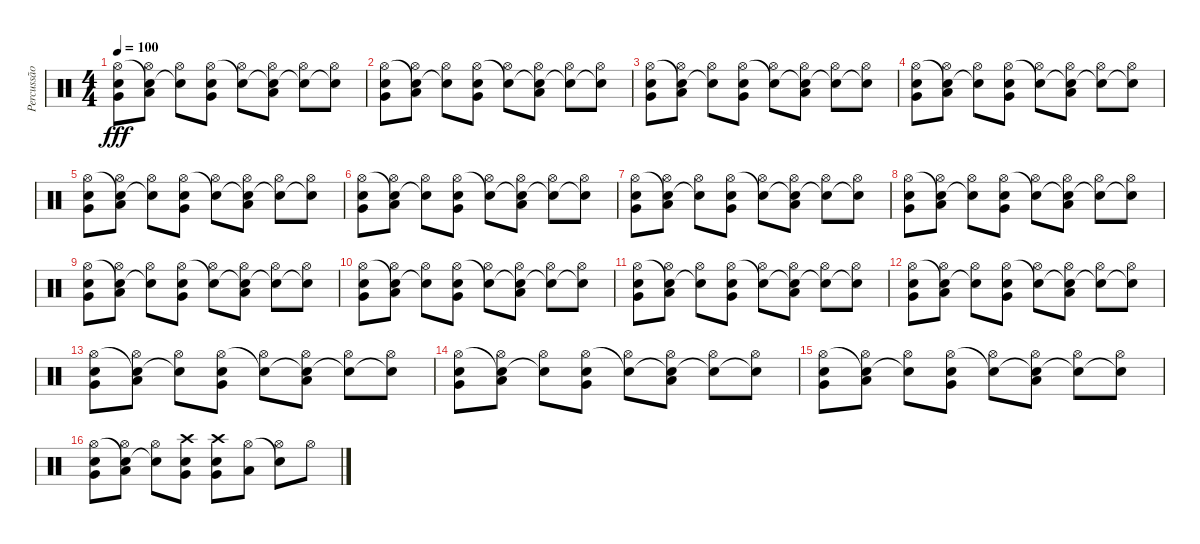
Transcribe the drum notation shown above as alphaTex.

\track ("Percussão" "Percussão") {instrument percussion}
\staff {score}
\articulation defaults
\ts (4 4)
\tempo 100
\clef neutral
\ks c
("Hi-Hat (open)" "Very Low Tom (hit)" "Snare (hit) 2").8{dy fff} ("Snare (hit)"{t} "Hi-Hat (open)" "Low Tom (hit)").8 ("Snare (hit)"{t} "Hi-Hat (open)").8 ("Hi-Hat (open)" "Very Low Tom (hit)" "Snare (hit) 2").8 ("Snare (hit)"{t} "Hi-Hat (open)").8 ("Snare (hit)"{t} "Hi-Hat (open)" "Low Tom (hit)").8 ("Snare (hit)"{t} "Hi-Hat (open)").8 ("Snare (hit)"{t} "Hi-Hat (open)").8 |
("Hi-Hat (open)" "Very Low Tom (hit)" "Snare (hit) 2").8 ("Snare (hit)"{t} "Hi-Hat (open)" "Low Tom (hit)").8 ("Snare (hit)"{t} "Hi-Hat (open)").8 ("Hi-Hat (open)" "Very Low Tom (hit)" "Snare (hit) 2").8 ("Snare (hit)"{t} "Hi-Hat (open)").8 ("Snare (hit)"{t} "Hi-Hat (open)" "Low Tom (hit)").8 ("Snare (hit)"{t} "Hi-Hat (open)").8 ("Snare (hit)"{t} "Hi-Hat (open)").8 |
("Hi-Hat (open)" "Very Low Tom (hit)" "Snare (hit) 2").8 ("Snare (hit)"{t} "Hi-Hat (open)" "Low Tom (hit)").8 ("Snare (hit)"{t} "Hi-Hat (open)").8 ("Hi-Hat (open)" "Very Low Tom (hit)" "Snare (hit) 2").8 ("Snare (hit)"{t} "Hi-Hat (open)").8 ("Snare (hit)"{t} "Hi-Hat (open)" "Low Tom (hit)").8 ("Snare (hit)"{t} "Hi-Hat (open)").8 ("Snare (hit)"{t} "Hi-Hat (open)").8 |
("Hi-Hat (open)" "Very Low Tom (hit)" "Snare (hit) 2").8 ("Snare (hit)"{t} "Hi-Hat (open)" "Low Tom (hit)").8 ("Snare (hit)"{t} "Hi-Hat (open)").8 ("Hi-Hat (open)" "Very Low Tom (hit)" "Snare (hit) 2").8 ("Snare (hit)"{t} "Hi-Hat (open)").8 ("Snare (hit)"{t} "Hi-Hat (open)" "Low Tom (hit)").8 ("Snare (hit)"{t} "Hi-Hat (open)").8 ("Snare (hit)"{t} "Hi-Hat (open)").8 |
("Hi-Hat (open)" "Very Low Tom (hit)" "Snare (hit) 2").8 ("Snare (hit)"{t} "Hi-Hat (open)" "Low Tom (hit)").8 ("Snare (hit)"{t} "Hi-Hat (open)").8 ("Hi-Hat (open)" "Very Low Tom (hit)" "Snare (hit) 2").8 ("Snare (hit)"{t} "Hi-Hat (open)").8 ("Snare (hit)"{t} "Hi-Hat (open)" "Low Tom (hit)").8 ("Snare (hit)"{t} "Hi-Hat (open)").8 ("Snare (hit)"{t} "Hi-Hat (open)").8 |
("Hi-Hat (open)" "Very Low Tom (hit)" "Snare (hit) 2").8 ("Snare (hit)"{t} "Hi-Hat (open)" "Low Tom (hit)").8 ("Snare (hit)"{t} "Hi-Hat (open)").8 ("Hi-Hat (open)" "Very Low Tom (hit)" "Snare (hit) 2").8 ("Snare (hit)"{t} "Hi-Hat (open)").8 ("Snare (hit)"{t} "Hi-Hat (open)" "Low Tom (hit)").8 ("Snare (hit)"{t} "Hi-Hat (open)").8 ("Snare (hit)"{t} "Hi-Hat (open)").8 |
("Hi-Hat (open)" "Very Low Tom (hit)" "Snare (hit) 2").8 ("Snare (hit)"{t} "Hi-Hat (open)" "Low Tom (hit)").8 ("Snare (hit)"{t} "Hi-Hat (open)").8 ("Hi-Hat (open)" "Very Low Tom (hit)" "Snare (hit) 2").8 ("Snare (hit)"{t} "Hi-Hat (open)").8 ("Snare (hit)"{t} "Hi-Hat (open)" "Low Tom (hit)").8 ("Snare (hit)"{t} "Hi-Hat (open)").8 ("Snare (hit)"{t} "Hi-Hat (open)").8 |
("Hi-Hat (open)" "Very Low Tom (hit)" "Snare (hit) 2").8 ("Snare (hit)"{t} "Hi-Hat (open)" "Low Tom (hit)").8 ("Snare (hit)"{t} "Hi-Hat (open)").8 ("Hi-Hat (open)" "Very Low Tom (hit)" "Snare (hit) 2").8 ("Snare (hit)"{t} "Hi-Hat (open)").8 ("Snare (hit)"{t} "Hi-Hat (open)" "Low Tom (hit)").8 ("Snare (hit)"{t} "Hi-Hat (open)").8 ("Snare (hit)"{t} "Hi-Hat (open)").8 |
("Hi-Hat (open)" "Very Low Tom (hit)" "Snare (hit) 2").8 ("Snare (hit)"{t} "Hi-Hat (open)" "Low Tom (hit)").8 ("Snare (hit)"{t} "Hi-Hat (open)").8 ("Hi-Hat (open)" "Very Low Tom (hit)" "Snare (hit) 2").8 ("Snare (hit)"{t} "Hi-Hat (open)").8 ("Snare (hit)"{t} "Hi-Hat (open)" "Low Tom (hit)").8 ("Snare (hit)"{t} "Hi-Hat (open)").8 ("Snare (hit)"{t} "Hi-Hat (open)").8 |
("Hi-Hat (open)" "Very Low Tom (hit)" "Snare (hit) 2").8 ("Snare (hit)"{t} "Hi-Hat (open)" "Low Tom (hit)").8 ("Snare (hit)"{t} "Hi-Hat (open)").8 ("Hi-Hat (open)" "Very Low Tom (hit)" "Snare (hit) 2").8 ("Snare (hit)"{t} "Hi-Hat (open)").8 ("Snare (hit)"{t} "Hi-Hat (open)" "Low Tom (hit)").8 ("Snare (hit)"{t} "Hi-Hat (open)").8 ("Snare (hit)"{t} "Hi-Hat (open)").8 |
("Hi-Hat (open)" "Very Low Tom (hit)" "Snare (hit) 2").8 ("Snare (hit)"{t} "Hi-Hat (open)" "Low Tom (hit)").8 ("Snare (hit)"{t} "Hi-Hat (open)").8 ("Hi-Hat (open)" "Very Low Tom (hit)" "Snare (hit) 2").8 ("Snare (hit)"{t} "Hi-Hat (open)").8 ("Snare (hit)"{t} "Hi-Hat (open)" "Low Tom (hit)").8 ("Snare (hit)"{t} "Hi-Hat (open)").8 ("Snare (hit)"{t} "Hi-Hat (open)").8 |
("Hi-Hat (open)" "Very Low Tom (hit)" "Snare (hit) 2").8 ("Snare (hit)"{t} "Hi-Hat (open)" "Low Tom (hit)").8 ("Snare (hit)"{t} "Hi-Hat (open)").8 ("Hi-Hat (open)" "Very Low Tom (hit)" "Snare (hit) 2").8 ("Snare (hit)"{t} "Hi-Hat (open)").8 ("Snare (hit)"{t} "Hi-Hat (open)" "Low Tom (hit)").8 ("Snare (hit)"{t} "Hi-Hat (open)").8 ("Snare (hit)"{t} "Hi-Hat (open)").8 |
("Hi-Hat (open)" "Very Low Tom (hit)" "Snare (hit) 2").8 ("Snare (hit)"{t} "Hi-Hat (open)" "Low Tom (hit)").8 ("Snare (hit)"{t} "Hi-Hat (open)").8 ("Hi-Hat (open)" "Very Low Tom (hit)" "Snare (hit) 2").8 ("Snare (hit)"{t} "Hi-Hat (open)").8 ("Snare (hit)"{t} "Hi-Hat (open)" "Low Tom (hit)").8 ("Snare (hit)"{t} "Hi-Hat (open)").8 ("Snare (hit)"{t} "Hi-Hat (open)").8 |
("Hi-Hat (open)" "Very Low Tom (hit)" "Snare (hit) 2").8 ("Snare (hit)"{t} "Hi-Hat (open)" "Low Tom (hit)").8 ("Snare (hit)"{t} "Hi-Hat (open)").8 ("Hi-Hat (open)" "Very Low Tom (hit)" "Snare (hit) 2").8 ("Snare (hit)"{t} "Hi-Hat (open)").8 ("Snare (hit)"{t} "Hi-Hat (open)" "Low Tom (hit)").8 ("Snare (hit)"{t} "Hi-Hat (open)").8 ("Snare (hit)"{t} "Hi-Hat (open)").8 |
("Hi-Hat (open)" "Very Low Tom (hit)" "Snare (hit) 2").8 ("Snare (hit)"{t} "Hi-Hat (open)" "Low Tom (hit)").8 ("Snare (hit)"{t} "Hi-Hat (open)").8 ("Hi-Hat (open)" "Very Low Tom (hit)" "Snare (hit) 2").8 ("Snare (hit)"{t} "Hi-Hat (open)").8 ("Snare (hit)"{t} "Hi-Hat (open)" "Low Tom (hit)").8 ("Snare (hit)"{t} "Hi-Hat (open)").8 ("Snare (hit)"{t} "Hi-Hat (open)").8 |
("Hi-Hat (open)" "Very Low Tom (hit)" "Snare (hit) 2").8 ("Snare (hit)"{t} "Hi-Hat (open)" "Low Tom (hit)").8 ("Snare (hit)"{t} "Hi-Hat (open)").8 ("Crash high (hit)" "Very Low Tom (hit)" "Snare (hit) 2").8 ("Crash high (hit)" "Very Low Tom (hit)" "Snare (hit) 2").8 ("Hi-Hat (open)" "Low Tom (hit)").8 ("Snare (hit)"{t} "Hi-Hat (open)").8 "Hi-Hat (open)".8
